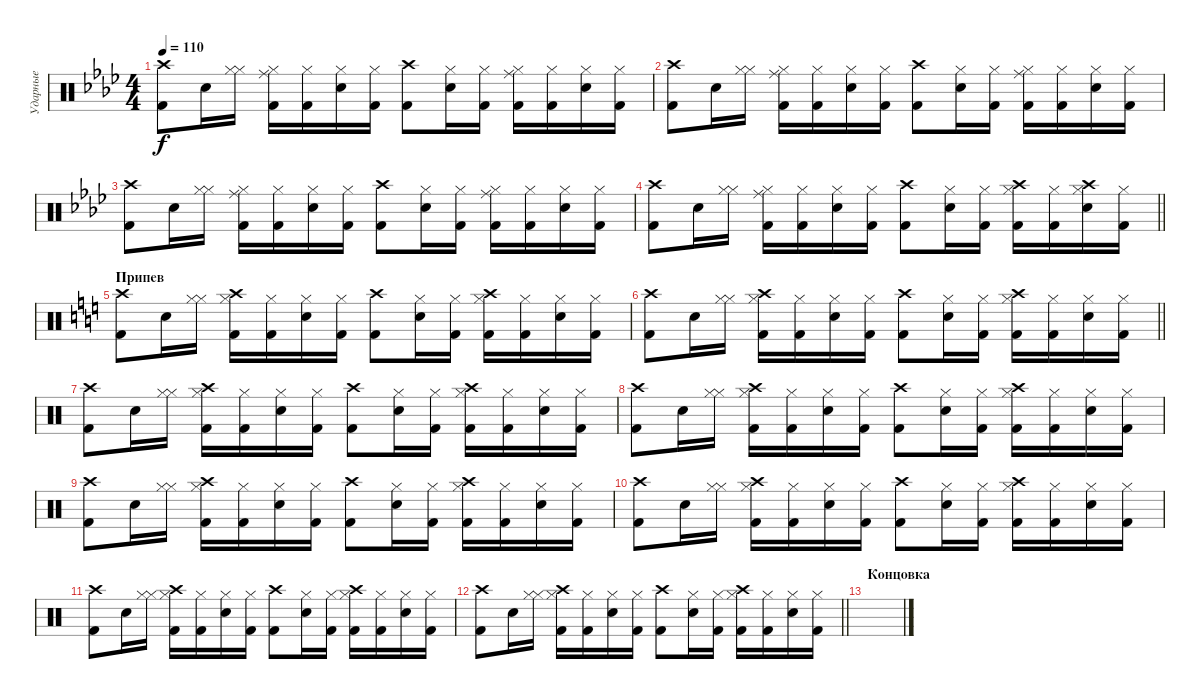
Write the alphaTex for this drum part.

\track ("Ударные" "Ударные") {instrument percussion}
\staff {score}
\articulation defaults
\ts (4 4)
\tempo 110
\clef neutral
\ks fminor
("Crash high (hit)" "Kick (hit) 2").8{dy f} "Snare (hit) 2".16 ("Hi-Hat (closed)" "Hi-Hat (closed)").16 ("Ride (middle)" "Hi-Hat (closed)" "Kick (hit) 2").16 ("Hi-Hat (closed)" "Kick (hit) 2").16 ("Hi-Hat (closed)" "Snare (hit) 2").16 ("Hi-Hat (closed)" "Kick (hit) 2").16 ("Crash high (hit)" "Kick (hit) 2").8 ("Hi-Hat (closed)" "Snare (hit) 2").16 ("Hi-Hat (closed)" "Kick (hit) 2").16 ("Ride (middle)" "Hi-Hat (closed)" "Kick (hit) 2").16 ("Hi-Hat (closed)" "Kick (hit) 2").16 ("Hi-Hat (closed)" "Snare (hit) 2").16 ("Hi-Hat (closed)" "Kick (hit) 2").16 |
("Crash high (hit)" "Kick (hit) 2").8 "Snare (hit) 2".16 ("Hi-Hat (closed)" "Hi-Hat (closed)").16 ("Ride (middle)" "Hi-Hat (closed)" "Kick (hit) 2").16 ("Hi-Hat (closed)" "Kick (hit) 2").16 ("Hi-Hat (closed)" "Snare (hit) 2").16 ("Hi-Hat (closed)" "Kick (hit) 2").16 ("Crash high (hit)" "Kick (hit) 2").8 ("Hi-Hat (closed)" "Snare (hit) 2").16 ("Hi-Hat (closed)" "Kick (hit) 2").16 ("Ride (middle)" "Hi-Hat (closed)" "Kick (hit) 2").16 ("Hi-Hat (closed)" "Kick (hit) 2").16 ("Hi-Hat (closed)" "Snare (hit) 2").16 ("Hi-Hat (closed)" "Kick (hit) 2").16 |
("Crash high (hit)" "Kick (hit) 2").8 "Snare (hit) 2".16 ("Hi-Hat (closed)" "Hi-Hat (closed)").16 ("Ride (middle)" "Hi-Hat (closed)" "Kick (hit) 2").16 ("Hi-Hat (closed)" "Kick (hit) 2").16 ("Hi-Hat (closed)" "Snare (hit) 2").16 ("Hi-Hat (closed)" "Kick (hit) 2").16 ("Crash high (hit)" "Kick (hit) 2").8 ("Hi-Hat (closed)" "Snare (hit) 2").16 ("Hi-Hat (closed)" "Kick (hit) 2").16 ("Ride (middle)" "Hi-Hat (closed)" "Kick (hit) 2").16 ("Hi-Hat (closed)" "Kick (hit) 2").16 ("Hi-Hat (closed)" "Snare (hit) 2").16 ("Hi-Hat (closed)" "Kick (hit) 2").16 |
\barLineRight lightlight
("Crash high (hit)" "Kick (hit) 2").8 "Snare (hit) 2".16 ("Hi-Hat (closed)" "Hi-Hat (closed)").16 ("Ride (middle)" "Hi-Hat (closed)" "Kick (hit) 2").16 ("Hi-Hat (closed)" "Kick (hit) 2").16 ("Hi-Hat (closed)" "Snare (hit) 2").16 ("Hi-Hat (closed)" "Kick (hit) 2").16 ("Crash high (hit)" "Kick (hit) 2").8 ("Hi-Hat (closed)" "Snare (hit) 2").16 ("Hi-Hat (closed)" "Kick (hit) 2").16 ("Crash high (hit)" "Hi-Hat (closed)" "Kick (hit) 2").16 ("Hi-Hat (closed)" "Kick (hit) 2").16 ("Crash high (hit)" "Hi-Hat (closed)" "Snare (hit) 2").16 ("Hi-Hat (closed)" "Kick (hit) 2").16 |
\section ("" "Припев")
\ks c
("Crash high (hit)" "Kick (hit) 2").8 "Snare (hit) 2".16 ("Hi-Hat (closed)" "Hi-Hat (closed)").16 ("Crash high (hit)" "Hi-Hat (closed)" "Kick (hit) 2").16 ("Hi-Hat (closed)" "Kick (hit) 2").16 ("Hi-Hat (closed)" "Snare (hit) 2").16 ("Hi-Hat (closed)" "Kick (hit) 2").16 ("Crash high (hit)" "Kick (hit) 2").8 ("Hi-Hat (closed)" "Snare (hit) 2").16 ("Hi-Hat (closed)" "Kick (hit) 2").16 ("Crash high (hit)" "Hi-Hat (closed)" "Kick (hit) 2").16 ("Hi-Hat (closed)" "Kick (hit) 2").16 ("Hi-Hat (closed)" "Snare (hit) 2").16 ("Hi-Hat (closed)" "Kick (hit) 2").16 |
\barLineRight lightlight
("Crash high (hit)" "Kick (hit) 2").8 "Snare (hit) 2".16 ("Hi-Hat (closed)" "Hi-Hat (closed)").16 ("Crash high (hit)" "Hi-Hat (closed)" "Kick (hit) 2").16 ("Hi-Hat (closed)" "Kick (hit) 2").16 ("Hi-Hat (closed)" "Snare (hit) 2").16 ("Hi-Hat (closed)" "Kick (hit) 2").16 ("Crash high (hit)" "Kick (hit) 2").8 ("Hi-Hat (closed)" "Snare (hit) 2").16 ("Hi-Hat (closed)" "Kick (hit) 2").16 ("Crash high (hit)" "Hi-Hat (closed)" "Kick (hit) 2").16 ("Hi-Hat (closed)" "Kick (hit) 2").16 ("Hi-Hat (closed)" "Snare (hit) 2").16 ("Hi-Hat (closed)" "Kick (hit) 2").16 |
("Crash high (hit)" "Kick (hit) 2").8 "Snare (hit) 2".16 ("Hi-Hat (closed)" "Hi-Hat (closed)").16 ("Crash high (hit)" "Hi-Hat (closed)" "Kick (hit) 2").16 ("Hi-Hat (closed)" "Kick (hit) 2").16 ("Hi-Hat (closed)" "Snare (hit) 2").16 ("Hi-Hat (closed)" "Kick (hit) 2").16 ("Crash high (hit)" "Kick (hit) 2").8 ("Hi-Hat (closed)" "Snare (hit) 2").16 ("Hi-Hat (closed)" "Kick (hit) 2").16 ("Crash high (hit)" "Hi-Hat (closed)" "Kick (hit) 2").16 ("Hi-Hat (closed)" "Kick (hit) 2").16 ("Hi-Hat (closed)" "Snare (hit) 2").16 ("Hi-Hat (closed)" "Kick (hit) 2").16 |
("Crash high (hit)" "Kick (hit) 2").8 "Snare (hit) 2".16 ("Hi-Hat (closed)" "Hi-Hat (closed)").16 ("Crash high (hit)" "Hi-Hat (closed)" "Kick (hit) 2").16 ("Hi-Hat (closed)" "Kick (hit) 2").16 ("Hi-Hat (closed)" "Snare (hit) 2").16 ("Hi-Hat (closed)" "Kick (hit) 2").16 ("Crash high (hit)" "Kick (hit) 2").8 ("Hi-Hat (closed)" "Snare (hit) 2").16 ("Hi-Hat (closed)" "Kick (hit) 2").16 ("Crash high (hit)" "Hi-Hat (closed)" "Kick (hit) 2").16 ("Hi-Hat (closed)" "Kick (hit) 2").16 ("Hi-Hat (closed)" "Snare (hit) 2").16 ("Hi-Hat (closed)" "Kick (hit) 2").16 |
("Crash high (hit)" "Kick (hit) 2").8 "Snare (hit) 2".16 ("Hi-Hat (closed)" "Hi-Hat (closed)").16 ("Crash high (hit)" "Hi-Hat (closed)" "Kick (hit) 2").16 ("Hi-Hat (closed)" "Kick (hit) 2").16 ("Hi-Hat (closed)" "Snare (hit) 2").16 ("Hi-Hat (closed)" "Kick (hit) 2").16 ("Crash high (hit)" "Kick (hit) 2").8 ("Hi-Hat (closed)" "Snare (hit) 2").16 ("Hi-Hat (closed)" "Kick (hit) 2").16 ("Crash high (hit)" "Hi-Hat (closed)" "Kick (hit) 2").16 ("Hi-Hat (closed)" "Kick (hit) 2").16 ("Hi-Hat (closed)" "Snare (hit) 2").16 ("Hi-Hat (closed)" "Kick (hit) 2").16 |
("Crash high (hit)" "Kick (hit) 2").8 "Snare (hit) 2".16 ("Hi-Hat (closed)" "Hi-Hat (closed)").16 ("Crash high (hit)" "Hi-Hat (closed)" "Kick (hit) 2").16 ("Hi-Hat (closed)" "Kick (hit) 2").16 ("Hi-Hat (closed)" "Snare (hit) 2").16 ("Hi-Hat (closed)" "Kick (hit) 2").16 ("Crash high (hit)" "Kick (hit) 2").8 ("Hi-Hat (closed)" "Snare (hit) 2").16 ("Hi-Hat (closed)" "Kick (hit) 2").16 ("Crash high (hit)" "Hi-Hat (closed)" "Kick (hit) 2").16 ("Hi-Hat (closed)" "Kick (hit) 2").16 ("Hi-Hat (closed)" "Snare (hit) 2").16 ("Hi-Hat (closed)" "Kick (hit) 2").16 |
("Crash high (hit)" "Kick (hit) 2").8 "Snare (hit) 2".16 ("Hi-Hat (closed)" "Hi-Hat (closed)").16 ("Crash high (hit)" "Hi-Hat (closed)" "Kick (hit) 2").16 ("Hi-Hat (closed)" "Kick (hit) 2").16 ("Hi-Hat (closed)" "Snare (hit) 2").16 ("Hi-Hat (closed)" "Kick (hit) 2").16 ("Crash high (hit)" "Kick (hit) 2").8 ("Hi-Hat (closed)" "Snare (hit) 2").16 ("Hi-Hat (closed)" "Kick (hit) 2").16 ("Crash high (hit)" "Hi-Hat (closed)" "Kick (hit) 2").16 ("Hi-Hat (closed)" "Kick (hit) 2").16 ("Hi-Hat (closed)" "Snare (hit) 2").16 ("Hi-Hat (closed)" "Kick (hit) 2").16 |
\barLineRight lightlight
("Crash high (hit)" "Kick (hit) 2").8 "Snare (hit) 2".16 ("Hi-Hat (closed)" "Hi-Hat (closed)").16 ("Crash high (hit)" "Hi-Hat (closed)" "Kick (hit) 2").16 ("Hi-Hat (closed)" "Kick (hit) 2").16 ("Hi-Hat (closed)" "Snare (hit) 2").16 ("Hi-Hat (closed)" "Kick (hit) 2").16 ("Crash high (hit)" "Kick (hit) 2").8 ("Hi-Hat (closed)" "Snare (hit) 2").16 ("Hi-Hat (closed)" "Kick (hit) 2").16 ("Crash high (hit)" "Hi-Hat (closed)" "Kick (hit) 2").16 ("Hi-Hat (closed)" "Kick (hit) 2").16 ("Hi-Hat (closed)" "Snare (hit) 2").16 ("Hi-Hat (closed)" "Kick (hit) 2").16 |
\section ("" "Концовка")
